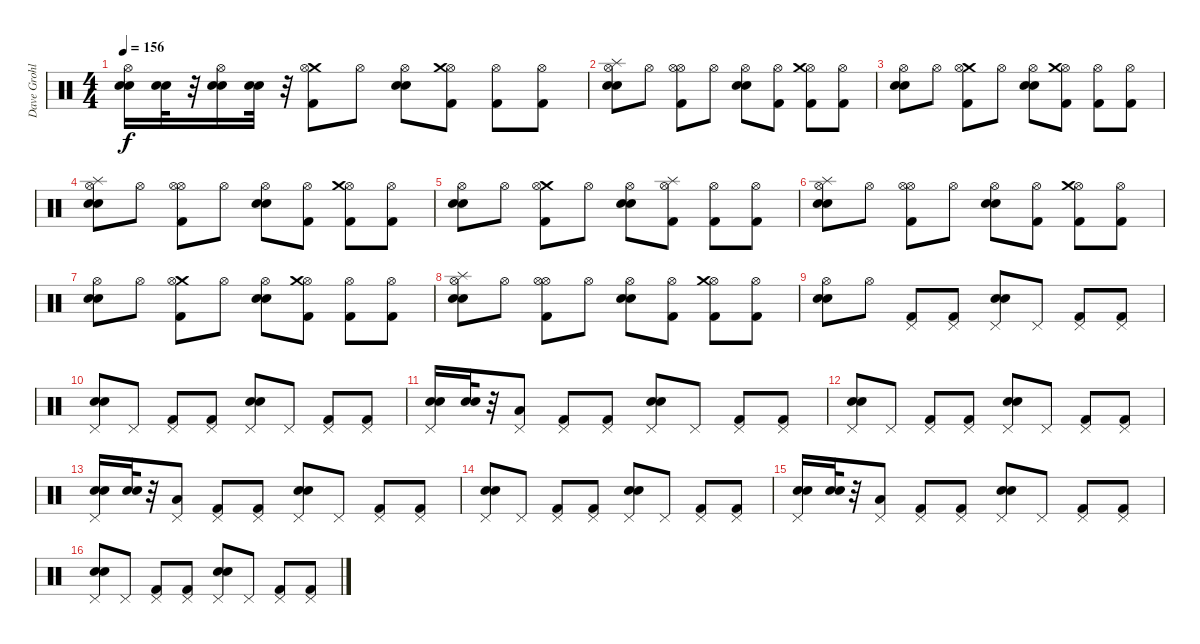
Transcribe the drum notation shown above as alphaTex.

\track ("Dave Grohl" "Dave Grohl") {instrument percussion}
\staff {score}
\articulation defaults
\ts (4 4)
\tempo 156
\clef neutral
\ks c
("Snare (hit) 2" "Electric Snare (hit)" "Hi-Hat (open)").16{dy f} ("Snare (hit) 2" "Electric Snare (hit)").32 r.32 ("Snare (hit) 2" "Electric Snare (hit)" "Hi-Hat (open)").16 ("Snare (hit) 2" "Electric Snare (hit)").32 r.32 ("Crash medium (hit)" "Kick (hit) 2" "Hi-Hat (open)").8 "Hi-Hat (open)".8 ("Electric Snare (hit)" "Snare (hit) 2" "Hi-Hat (open)").8 ("Kick (hit) 2" "Hi-Hat (open)" "Crash medium (hit)").8 ("Kick (hit) 2" "Hi-Hat (open)").8 ("Kick (hit) 2" "Hi-Hat (open)").8 |
("Splash (hit)" "Snare (hit) 2" "Electric Snare (hit)" "Hi-Hat (open)").8 "Hi-Hat (open)".8 ("Hi-Hat (open)" "Kick (hit) 2" "Hi-Hat (open)").8 "Hi-Hat (open)".8 ("Electric Snare (hit)" "Snare (hit) 2" "Hi-Hat (open)").8 ("Kick (hit) 2" "Hi-Hat (open)").8 ("Kick (hit) 2" "Hi-Hat (open)" "Crash medium (hit)").8 ("Kick (hit) 2" "Hi-Hat (open)").8 |
("Snare (hit) 2" "Electric Snare (hit)" "Hi-Hat (open)").8 "Hi-Hat (open)".8 ("Crash medium (hit)" "Kick (hit) 2" "Hi-Hat (open)").8 "Hi-Hat (open)".8 ("Electric Snare (hit)" "Snare (hit) 2" "Hi-Hat (open)").8 ("Kick (hit) 2" "Hi-Hat (open)" "Crash medium (hit)").8 ("Kick (hit) 2" "Hi-Hat (open)").8 ("Kick (hit) 2" "Hi-Hat (open)").8 |
("Splash (hit)" "Snare (hit) 2" "Electric Snare (hit)" "Hi-Hat (open)").8 "Hi-Hat (open)".8 ("Hi-Hat (open)" "Kick (hit) 2" "Hi-Hat (open)").8 "Hi-Hat (open)".8 ("Electric Snare (hit)" "Snare (hit) 2" "Hi-Hat (open)").8 ("Kick (hit) 2" "Hi-Hat (open)").8 ("Kick (hit) 2" "Hi-Hat (open)" "Crash medium (hit)").8 ("Kick (hit) 2" "Hi-Hat (open)").8 |
("Snare (hit) 2" "Electric Snare (hit)" "Hi-Hat (open)").8 "Hi-Hat (open)".8 ("Crash medium (hit)" "Kick (hit) 2" "Hi-Hat (open)").8 "Hi-Hat (open)".8 ("Electric Snare (hit)" "Snare (hit) 2" "Hi-Hat (open)").8 ("Kick (hit) 2" "Hi-Hat (open)" "Splash (hit)").8 ("Kick (hit) 2" "Hi-Hat (open)").8 ("Kick (hit) 2" "Hi-Hat (open)").8 |
("Splash (hit)" "Snare (hit) 2" "Electric Snare (hit)" "Hi-Hat (open)").8 "Hi-Hat (open)".8 ("Hi-Hat (open)" "Kick (hit) 2" "Hi-Hat (open)").8 "Hi-Hat (open)".8 ("Electric Snare (hit)" "Snare (hit) 2" "Hi-Hat (open)").8 ("Kick (hit) 2" "Hi-Hat (open)").8 ("Kick (hit) 2" "Hi-Hat (open)" "Crash medium (hit)").8 ("Kick (hit) 2" "Hi-Hat (open)").8 |
("Snare (hit) 2" "Electric Snare (hit)" "Hi-Hat (open)").8 "Hi-Hat (open)".8 ("Crash medium (hit)" "Kick (hit) 2" "Hi-Hat (open)").8 "Hi-Hat (open)".8 ("Electric Snare (hit)" "Snare (hit) 2" "Hi-Hat (open)").8 ("Kick (hit) 2" "Hi-Hat (open)" "Crash medium (hit)").8 ("Kick (hit) 2" "Hi-Hat (open)").8 ("Kick (hit) 2" "Hi-Hat (open)").8 |
("Splash (hit)" "Snare (hit) 2" "Electric Snare (hit)" "Hi-Hat (open)").8 "Hi-Hat (open)".8 ("Hi-Hat (open)" "Kick (hit) 2" "Hi-Hat (open)").8 "Hi-Hat (open)".8 ("Electric Snare (hit)" "Snare (hit) 2" "Hi-Hat (open)").8 ("Kick (hit) 2" "Hi-Hat (open)").8 ("Kick (hit) 2" "Hi-Hat (open)" "Crash medium (hit)").8 ("Kick (hit) 2" "Hi-Hat (open)").8 |
("Snare (hit) 2" "Electric Snare (hit)" "Hi-Hat (open)").8 "Hi-Hat (open)".8 ("Kick (hit) 2" "Pedal Hi-Hat (hit)").8 ("Kick (hit) 2" "Pedal Hi-Hat (hit)").8 ("Snare (hit) 2" "Electric Snare (hit)" "Pedal Hi-Hat (hit)").8 "Pedal Hi-Hat (hit)".8 ("Kick (hit) 2" "Pedal Hi-Hat (hit)").8 ("Kick (hit) 2" "Pedal Hi-Hat (hit)").8 |
("Snare (hit) 2" "Electric Snare (hit)" "Pedal Hi-Hat (hit)").8 "Pedal Hi-Hat (hit)".8 ("Kick (hit) 2" "Pedal Hi-Hat (hit)").8 ("Kick (hit) 2" "Pedal Hi-Hat (hit)").8 ("Snare (hit) 2" "Electric Snare (hit)" "Pedal Hi-Hat (hit)").8 "Pedal Hi-Hat (hit)".8 ("Kick (hit) 2" "Pedal Hi-Hat (hit)").8 ("Kick (hit) 2" "Pedal Hi-Hat (hit)").8 |
("Pedal Hi-Hat (hit)" "Snare (hit) 2" "Electric Snare (hit)").16 ("Snare (hit) 2" "Electric Snare (hit)").32 r.32 ("Pedal Hi-Hat (hit)" "Low Floor Tom (hit)").8 ("Kick (hit) 2" "Pedal Hi-Hat (hit)").8 ("Kick (hit) 2" "Pedal Hi-Hat (hit)").8 ("Snare (hit) 2" "Electric Snare (hit)" "Pedal Hi-Hat (hit)").8 "Pedal Hi-Hat (hit)".8 ("Kick (hit) 2" "Pedal Hi-Hat (hit)").8 ("Kick (hit) 2" "Pedal Hi-Hat (hit)").8 |
("Snare (hit) 2" "Electric Snare (hit)" "Pedal Hi-Hat (hit)").8 "Pedal Hi-Hat (hit)".8 ("Kick (hit) 2" "Pedal Hi-Hat (hit)").8 ("Kick (hit) 2" "Pedal Hi-Hat (hit)").8 ("Snare (hit) 2" "Electric Snare (hit)" "Pedal Hi-Hat (hit)").8 "Pedal Hi-Hat (hit)".8 ("Kick (hit) 2" "Pedal Hi-Hat (hit)").8 ("Kick (hit) 2" "Pedal Hi-Hat (hit)").8 |
("Pedal Hi-Hat (hit)" "Snare (hit) 2" "Electric Snare (hit)").16 ("Snare (hit) 2" "Electric Snare (hit)").32 r.32 ("Pedal Hi-Hat (hit)" "Low Floor Tom (hit)").8 ("Kick (hit) 2" "Pedal Hi-Hat (hit)").8 ("Kick (hit) 2" "Pedal Hi-Hat (hit)").8 ("Snare (hit) 2" "Electric Snare (hit)" "Pedal Hi-Hat (hit)").8 "Pedal Hi-Hat (hit)".8 ("Kick (hit) 2" "Pedal Hi-Hat (hit)").8 ("Kick (hit) 2" "Pedal Hi-Hat (hit)").8 |
("Snare (hit) 2" "Electric Snare (hit)" "Pedal Hi-Hat (hit)").8 "Pedal Hi-Hat (hit)".8 ("Kick (hit) 2" "Pedal Hi-Hat (hit)").8 ("Kick (hit) 2" "Pedal Hi-Hat (hit)").8 ("Snare (hit) 2" "Electric Snare (hit)" "Pedal Hi-Hat (hit)").8 "Pedal Hi-Hat (hit)".8 ("Kick (hit) 2" "Pedal Hi-Hat (hit)").8 ("Kick (hit) 2" "Pedal Hi-Hat (hit)").8 |
("Pedal Hi-Hat (hit)" "Snare (hit) 2" "Electric Snare (hit)").16 ("Snare (hit) 2" "Electric Snare (hit)").32 r.32 ("Pedal Hi-Hat (hit)" "Low Floor Tom (hit)").8 ("Kick (hit) 2" "Pedal Hi-Hat (hit)").8 ("Kick (hit) 2" "Pedal Hi-Hat (hit)").8 ("Snare (hit) 2" "Electric Snare (hit)" "Pedal Hi-Hat (hit)").8 "Pedal Hi-Hat (hit)".8 ("Kick (hit) 2" "Pedal Hi-Hat (hit)").8 ("Kick (hit) 2" "Pedal Hi-Hat (hit)").8 |
("Snare (hit) 2" "Electric Snare (hit)" "Pedal Hi-Hat (hit)").8 "Pedal Hi-Hat (hit)".8 ("Kick (hit) 2" "Pedal Hi-Hat (hit)").8 ("Kick (hit) 2" "Pedal Hi-Hat (hit)").8 ("Snare (hit) 2" "Electric Snare (hit)" "Pedal Hi-Hat (hit)").8 "Pedal Hi-Hat (hit)".8 ("Kick (hit) 2" "Pedal Hi-Hat (hit)").8 ("Kick (hit) 2" "Pedal Hi-Hat (hit)").8
